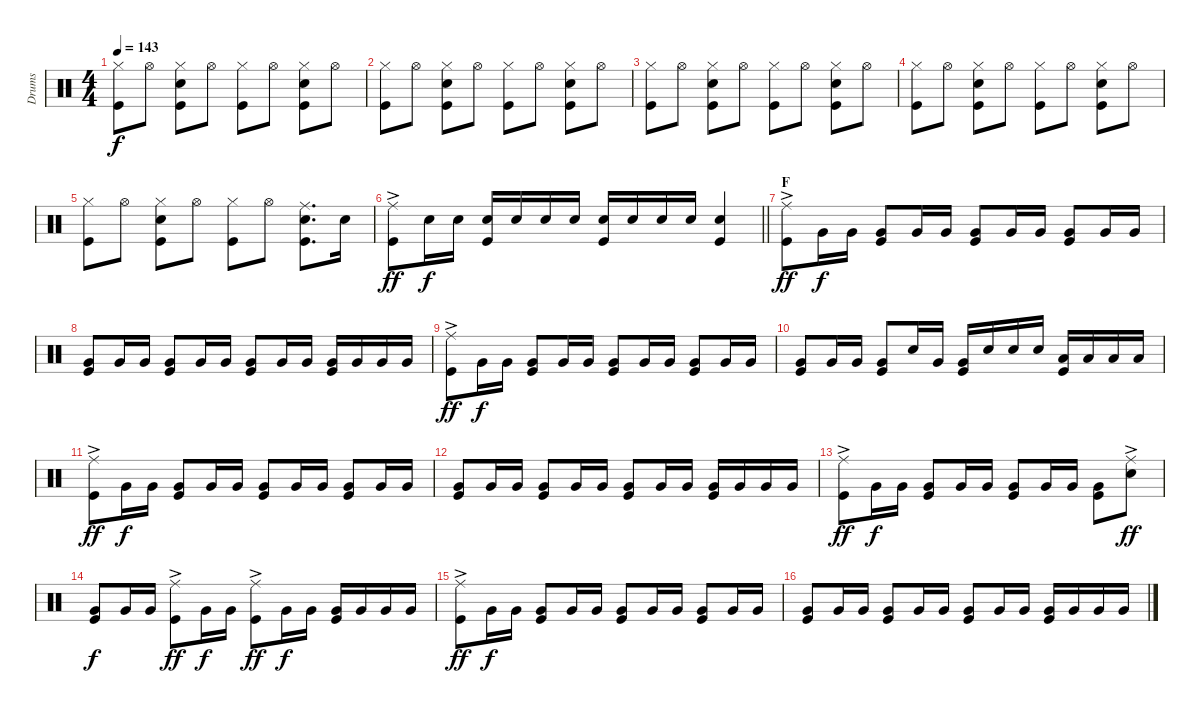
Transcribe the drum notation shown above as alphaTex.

\track ("Drums" "Drums") {instrument percussion}
\staff {score}
\articulation defaults
\ts (4 4)
\tempo 143
\clef neutral
\ks c
("Hi-Hat (closed)" "Kick (hit)").8{dy f} "Hi-Hat (open)".8 ("Hi-Hat (closed)" "Kick (hit)" "Snare (hit) 2").8 "Hi-Hat (open)".8 ("Hi-Hat (closed)" "Kick (hit)").8 "Hi-Hat (open)".8 ("Hi-Hat (closed)" "Kick (hit)" "Snare (hit) 2").8 "Hi-Hat (open)".8 |
("Hi-Hat (closed)" "Kick (hit)").8 "Hi-Hat (open)".8 ("Hi-Hat (closed)" "Kick (hit)" "Snare (hit) 2").8 "Hi-Hat (open)".8 ("Hi-Hat (closed)" "Kick (hit)").8 "Hi-Hat (open)".8 ("Hi-Hat (closed)" "Kick (hit)" "Snare (hit) 2").8 "Hi-Hat (open)".8 |
("Hi-Hat (closed)" "Kick (hit)").8 "Hi-Hat (open)".8 ("Hi-Hat (closed)" "Kick (hit)" "Snare (hit) 2").8 "Hi-Hat (open)".8 ("Hi-Hat (closed)" "Kick (hit)").8 "Hi-Hat (open)".8 ("Hi-Hat (closed)" "Kick (hit)" "Snare (hit) 2").8 "Hi-Hat (open)".8 |
("Hi-Hat (closed)" "Kick (hit)").8 "Hi-Hat (open)".8 ("Hi-Hat (closed)" "Kick (hit)" "Snare (hit) 2").8 "Hi-Hat (open)".8 ("Hi-Hat (closed)" "Kick (hit)").8 "Hi-Hat (open)".8 ("Hi-Hat (closed)" "Kick (hit)" "Snare (hit) 2").8 "Hi-Hat (open)".8 |
("Hi-Hat (closed)" "Kick (hit)").8 "Hi-Hat (open)".8 ("Hi-Hat (closed)" "Snare (hit) 2" "Kick (hit)").8 "Hi-Hat (open)".8 ("Hi-Hat (closed)" "Kick (hit)").8 "Hi-Hat (open)".8 ("Ride (middle)" "Snare (hit) 2" "Kick (hit)").8{d} "Snare (hit) 2".16 |
\barLineRight lightlight
("Ride (middle)"{ac} "Kick (hit)").8{dy ff} "Snare (hit) 2".16{dy f} "Snare (hit) 2".16 ("Snare (hit) 2" "Kick (hit)").16 "Snare (hit) 2".16 "Snare (hit) 2".16 "Snare (hit) 2".16 ("Snare (hit) 2" "Kick (hit)").16 "Snare (hit) 2".16 "Snare (hit) 2".16 "Snare (hit) 2".16 ("Snare (hit) 2" "Kick (hit)").4 |
\section ("" "F")
("Ride (middle)"{ac} "Kick (hit)").8{dy ff} "Very Low Tom (hit)".16{dy f} "Very Low Tom (hit)".16 ("Very Low Tom (hit)" "Kick (hit)").8 "Very Low Tom (hit)".16 "Very Low Tom (hit)".16 ("Very Low Tom (hit)" "Kick (hit)").8 "Very Low Tom (hit)".16 "Very Low Tom (hit)".16 ("Very Low Tom (hit)" "Kick (hit)").8 "Very Low Tom (hit)".16 "Very Low Tom (hit)".16 |
("Very Low Tom (hit)" "Kick (hit)").8 "Very Low Tom (hit)".16 "Very Low Tom (hit)".16 ("Very Low Tom (hit)" "Kick (hit)").8 "Very Low Tom (hit)".16 "Very Low Tom (hit)".16 ("Very Low Tom (hit)" "Kick (hit)").8 "Very Low Tom (hit)".16 "Very Low Tom (hit)".16 ("Kick (hit)" "Very Low Tom (hit)").16 "Very Low Tom (hit)".16 "Very Low Tom (hit)".16 "Very Low Tom (hit)".16 |
("Ride (middle)"{ac} "Kick (hit)").8{dy ff} "Very Low Tom (hit)".16{dy f} "Very Low Tom (hit)".16 ("Very Low Tom (hit)" "Kick (hit)").8 "Very Low Tom (hit)".16 "Very Low Tom (hit)".16 ("Very Low Tom (hit)" "Kick (hit)").8 "Very Low Tom (hit)".16 "Very Low Tom (hit)".16 ("Very Low Tom (hit)" "Kick (hit)").8 "Very Low Tom (hit)".16 "Very Low Tom (hit)".16 |
("Kick (hit)" "Very Low Tom (hit)").8 "Very Low Tom (hit)".16 "Very Low Tom (hit)".16 ("Kick (hit)" "Very Low Tom (hit)").8 "Snare (hit) 2".16 "Very Low Tom (hit)".16 ("Kick (hit)" "Very Low Tom (hit)").16 "Snare (hit) 2".16 "Snare (hit) 2".16 "Snare (hit) 2".16 ("Kick (hit)" "Low Tom (hit)").16 "Low Tom (hit)".16 "Low Tom (hit)".16 "Low Tom (hit)".16 |
("Ride (middle)"{ac} "Kick (hit)").8{dy ff} "Very Low Tom (hit)".16{dy f} "Very Low Tom (hit)".16 ("Very Low Tom (hit)" "Kick (hit)").8 "Very Low Tom (hit)".16 "Very Low Tom (hit)".16 ("Very Low Tom (hit)" "Kick (hit)").8 "Very Low Tom (hit)".16 "Very Low Tom (hit)".16 ("Very Low Tom (hit)" "Kick (hit)").8 "Very Low Tom (hit)".16 "Very Low Tom (hit)".16 |
("Very Low Tom (hit)" "Kick (hit)").8 "Very Low Tom (hit)".16 "Very Low Tom (hit)".16 ("Very Low Tom (hit)" "Kick (hit)").8 "Very Low Tom (hit)".16 "Very Low Tom (hit)".16 ("Very Low Tom (hit)" "Kick (hit)").8 "Very Low Tom (hit)".16 "Very Low Tom (hit)".16 ("Kick (hit)" "Very Low Tom (hit)").16 "Very Low Tom (hit)".16 "Very Low Tom (hit)".16 "Very Low Tom (hit)".16 |
("Ride (middle)"{ac} "Kick (hit)").8{dy ff} "Very Low Tom (hit)".16{dy f} "Very Low Tom (hit)".16 ("Very Low Tom (hit)" "Kick (hit)").8 "Very Low Tom (hit)".16 "Very Low Tom (hit)".16 ("Very Low Tom (hit)" "Kick (hit)").8 "Very Low Tom (hit)".16 "Very Low Tom (hit)".16 ("Kick (hit)" "Very Low Tom (hit)").8 ("Snare (hit) 2" "Ride (middle)"{ac}).8{dy ff} |
("Very Low Tom (hit)" "Kick (hit)").8{dy f} "Very Low Tom (hit)".16 "Very Low Tom (hit)".16 ("Ride (middle)"{ac} "Kick (hit)").8{dy ff} "Very Low Tom (hit)".16{dy f} "Very Low Tom (hit)".16 ("Ride (middle)"{ac} "Kick (hit)").8{dy ff} "Very Low Tom (hit)".16{dy f} "Very Low Tom (hit)".16 ("Kick (hit)" "Very Low Tom (hit)").16 "Very Low Tom (hit)".16 "Very Low Tom (hit)".16 "Very Low Tom (hit)".16 |
("Ride (middle)"{ac} "Kick (hit)").8{dy ff} "Very Low Tom (hit)".16{dy f} "Very Low Tom (hit)".16 ("Very Low Tom (hit)" "Kick (hit)").8 "Very Low Tom (hit)".16 "Very Low Tom (hit)".16 ("Very Low Tom (hit)" "Kick (hit)").8 "Very Low Tom (hit)".16 "Very Low Tom (hit)".16 ("Very Low Tom (hit)" "Kick (hit)").8 "Very Low Tom (hit)".16 "Very Low Tom (hit)".16 |
("Very Low Tom (hit)" "Kick (hit)").8 "Very Low Tom (hit)".16 "Very Low Tom (hit)".16 ("Very Low Tom (hit)" "Kick (hit)").8 "Very Low Tom (hit)".16 "Very Low Tom (hit)".16 ("Very Low Tom (hit)" "Kick (hit)").8 "Very Low Tom (hit)".16 "Very Low Tom (hit)".16 ("Kick (hit)" "Very Low Tom (hit)").16 "Very Low Tom (hit)".16 "Very Low Tom (hit)".16 "Very Low Tom (hit)".16
